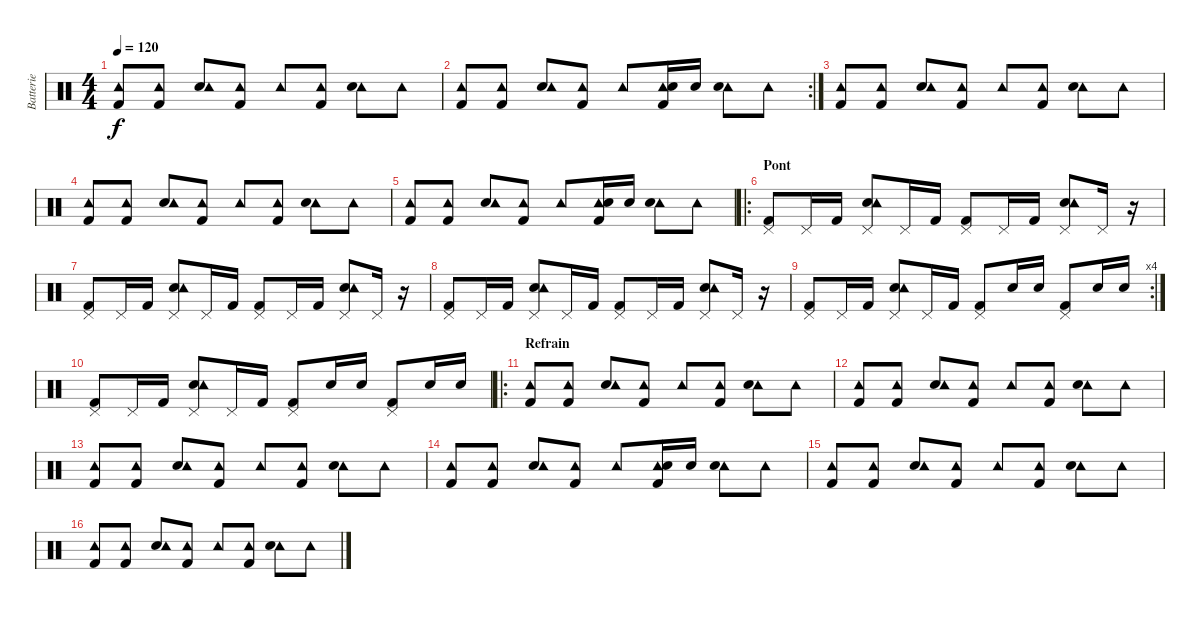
\track ("Batterie" "Batterie") {instrument percussion}
\staff {score}
\articulation defaults
\ts (4 4)
\tempo 120
\clef neutral
\ks c
("Kick (hit) 2" "Tambourine (hit)").8{dy f} ("Kick (hit) 2" "Tambourine (hit)").8 ("Snare (hit) 2" "Tambourine (hit)").8 ("Tambourine (hit)" "Kick (hit) 2").8 "Tambourine (hit)".8 ("Tambourine (hit)" "Kick (hit) 2").8 ("Tambourine (hit)" "Snare (hit) 2").8 "Tambourine (hit)".8 |
\rc 2
("Kick (hit) 2" "Tambourine (hit)").8 ("Kick (hit) 2" "Tambourine (hit)").8 ("Snare (hit) 2" "Tambourine (hit)").8 ("Tambourine (hit)" "Kick (hit) 2").8 "Tambourine (hit)".8 ("Tambourine (hit)" "Kick (hit) 2" "Snare (hit) 2").16 "Snare (hit) 2".16 ("Tambourine (hit)" "Snare (hit) 2").8 "Tambourine (hit)".8 |
("Kick (hit) 2" "Tambourine (hit)").8 ("Kick (hit) 2" "Tambourine (hit)").8 ("Snare (hit) 2" "Tambourine (hit)").8 ("Tambourine (hit)" "Kick (hit) 2").8 "Tambourine (hit)".8 ("Tambourine (hit)" "Kick (hit) 2").8 ("Tambourine (hit)" "Snare (hit) 2").8 "Tambourine (hit)".8 |
("Kick (hit) 2" "Tambourine (hit)").8 ("Kick (hit) 2" "Tambourine (hit)").8 ("Snare (hit) 2" "Tambourine (hit)").8 ("Tambourine (hit)" "Kick (hit) 2").8 "Tambourine (hit)".8 ("Tambourine (hit)" "Kick (hit) 2").8 ("Tambourine (hit)" "Snare (hit) 2").8 "Tambourine (hit)".8 |
("Kick (hit) 2" "Tambourine (hit)").8 ("Kick (hit) 2" "Tambourine (hit)").8 ("Snare (hit) 2" "Tambourine (hit)").8 ("Tambourine (hit)" "Kick (hit) 2").8 "Tambourine (hit)".8 ("Tambourine (hit)" "Kick (hit) 2" "Snare (hit) 2").16 "Snare (hit) 2".16 ("Tambourine (hit)" "Snare (hit) 2").8 "Tambourine (hit)".8 |
\ro
\section ("" "Pont")
("Kick (hit) 2" "Pedal Hi-Hat (hit)").8 "Pedal Hi-Hat (hit)".16 "Kick (hit) 2".16 ("Snare (hit) 2" "Tambourine (hit)" "Pedal Hi-Hat (hit)").8 "Pedal Hi-Hat (hit)".16 "Kick (hit) 2".16 ("Kick (hit) 2" "Pedal Hi-Hat (hit)").8 "Pedal Hi-Hat (hit)".16 "Kick (hit) 2".16 ("Snare (hit) 2" "Tambourine (hit)" "Pedal Hi-Hat (hit)").8 "Pedal Hi-Hat (hit)".16 r.16 |
("Kick (hit) 2" "Pedal Hi-Hat (hit)").8 "Pedal Hi-Hat (hit)".16 "Kick (hit) 2".16 ("Snare (hit) 2" "Tambourine (hit)" "Pedal Hi-Hat (hit)").8 "Pedal Hi-Hat (hit)".16 "Kick (hit) 2".16 ("Kick (hit) 2" "Pedal Hi-Hat (hit)").8 "Pedal Hi-Hat (hit)".16 "Kick (hit) 2".16 ("Snare (hit) 2" "Tambourine (hit)" "Pedal Hi-Hat (hit)").8 "Pedal Hi-Hat (hit)".16 r.16 |
("Kick (hit) 2" "Pedal Hi-Hat (hit)").8 "Pedal Hi-Hat (hit)".16 "Kick (hit) 2".16 ("Snare (hit) 2" "Tambourine (hit)" "Pedal Hi-Hat (hit)").8 "Pedal Hi-Hat (hit)".16 "Kick (hit) 2".16 ("Kick (hit) 2" "Pedal Hi-Hat (hit)").8 "Pedal Hi-Hat (hit)".16 "Kick (hit) 2".16 ("Snare (hit) 2" "Tambourine (hit)" "Pedal Hi-Hat (hit)").8 "Pedal Hi-Hat (hit)".16 r.16 |
\rc 4
("Kick (hit) 2" "Pedal Hi-Hat (hit)").8 "Pedal Hi-Hat (hit)".16 "Kick (hit) 2".16 ("Snare (hit) 2" "Tambourine (hit)" "Pedal Hi-Hat (hit)").8 "Pedal Hi-Hat (hit)".16 "Kick (hit) 2".16 ("Kick (hit) 2" "Pedal Hi-Hat (hit)").8 "Snare (hit) 2".16 "Snare (hit) 2".16 ("Kick (hit) 2" "Pedal Hi-Hat (hit)").8 "Snare (hit) 2".16 "Snare (hit) 2".16 |
("Kick (hit) 2" "Pedal Hi-Hat (hit)").8 "Pedal Hi-Hat (hit)".16 "Kick (hit) 2".16 ("Snare (hit) 2" "Tambourine (hit)" "Pedal Hi-Hat (hit)").8 "Pedal Hi-Hat (hit)".16 "Kick (hit) 2".16 ("Kick (hit) 2" "Pedal Hi-Hat (hit)").8 "Snare (hit) 2".16 "Snare (hit) 2".16 ("Kick (hit) 2" "Pedal Hi-Hat (hit)").8 "Snare (hit) 2".16 "Snare (hit) 2".16 |
\ro
\section ("" "Refrain")
("Kick (hit) 2" "Tambourine (hit)").8 ("Kick (hit) 2" "Tambourine (hit)").8 ("Snare (hit) 2" "Tambourine (hit)").8 ("Tambourine (hit)" "Kick (hit) 2").8 "Tambourine (hit)".8 ("Tambourine (hit)" "Kick (hit) 2").8 ("Tambourine (hit)" "Snare (hit) 2").8 "Tambourine (hit)".8 |
("Kick (hit) 2" "Tambourine (hit)").8 ("Kick (hit) 2" "Tambourine (hit)").8 ("Snare (hit) 2" "Tambourine (hit)").8 ("Tambourine (hit)" "Kick (hit) 2").8 "Tambourine (hit)".8 ("Tambourine (hit)" "Kick (hit) 2").8 ("Tambourine (hit)" "Snare (hit) 2").8 "Tambourine (hit)".8 |
("Kick (hit) 2" "Tambourine (hit)").8 ("Kick (hit) 2" "Tambourine (hit)").8 ("Snare (hit) 2" "Tambourine (hit)").8 ("Tambourine (hit)" "Kick (hit) 2").8 "Tambourine (hit)".8 ("Tambourine (hit)" "Kick (hit) 2").8 ("Tambourine (hit)" "Snare (hit) 2").8 "Tambourine (hit)".8 |
("Kick (hit) 2" "Tambourine (hit)").8 ("Kick (hit) 2" "Tambourine (hit)").8 ("Snare (hit) 2" "Tambourine (hit)").8 ("Tambourine (hit)" "Kick (hit) 2").8 "Tambourine (hit)".8 ("Tambourine (hit)" "Kick (hit) 2" "Snare (hit) 2").16 "Snare (hit) 2".16 ("Tambourine (hit)" "Snare (hit) 2").8 "Tambourine (hit)".8 |
("Kick (hit) 2" "Tambourine (hit)").8 ("Kick (hit) 2" "Tambourine (hit)").8 ("Snare (hit) 2" "Tambourine (hit)").8 ("Tambourine (hit)" "Kick (hit) 2").8 "Tambourine (hit)".8 ("Tambourine (hit)" "Kick (hit) 2").8 ("Tambourine (hit)" "Snare (hit) 2").8 "Tambourine (hit)".8 |
("Kick (hit) 2" "Tambourine (hit)").8 ("Kick (hit) 2" "Tambourine (hit)").8 ("Snare (hit) 2" "Tambourine (hit)").8 ("Tambourine (hit)" "Kick (hit) 2").8 "Tambourine (hit)".8 ("Tambourine (hit)" "Kick (hit) 2").8 ("Tambourine (hit)" "Snare (hit) 2").8 "Tambourine (hit)".8
